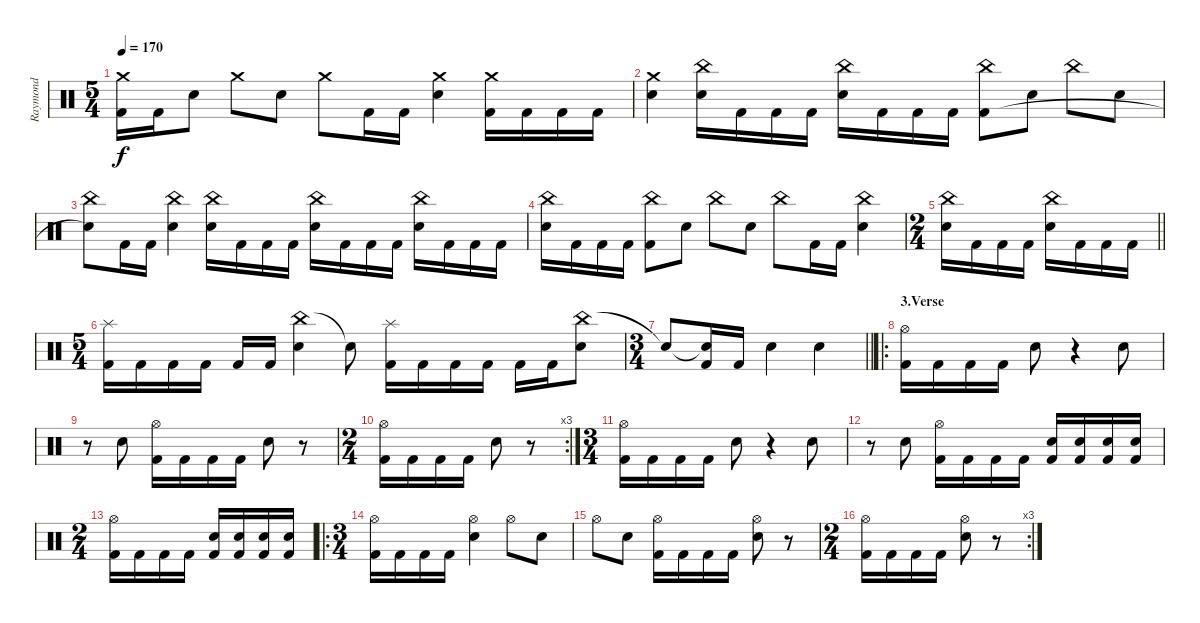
\track ("Raymond" "Raymond") {instrument percussion}
\staff {score}
\articulation defaults
\ts (5 4)
\tempo 170
\clef neutral
\ks c
("Crash medium (hit)" "Kick (hit) 2").16{dy f} "Kick (hit) 2".16 "Electric Snare (hit)".8 "Crash medium (hit)".8 "Electric Snare (hit)".8 "Crash medium (hit)".8 "Kick (hit) 2".16 "Kick (hit) 2".16 ("Crash medium (hit)" "Electric Snare (hit)").4 ("Crash medium (hit)" "Kick (hit) 2").16 "Kick (hit) 2".16 "Kick (hit) 2".16 "Kick (hit) 2".16 |
("Crash medium (hit)" "Electric Snare (hit)").4 ("China (hit)" "Electric Snare (hit)").16 "Kick (hit) 2".16 "Kick (hit) 2".16 "Kick (hit) 2".16 ("China (hit)" "Electric Snare (hit)").16 "Kick (hit) 2".16 "Kick (hit) 2".16 "Kick (hit) 2".16 ("China (hit)" "Kick (hit) 2").8 "Electric Snare (hit)".8 "China (hit)".8 "Electric Snare (hit)".8 |
("China (hit)" "Snare (hit)"{t}).8 "Kick (hit) 2".16 "Kick (hit) 2".16 ("China (hit)" "Electric Snare (hit)").4 ("China (hit)" "Electric Snare (hit)").16 "Kick (hit) 2".16 "Kick (hit) 2".16 "Kick (hit) 2".16 ("China (hit)" "Electric Snare (hit)").16 "Kick (hit) 2".16 "Kick (hit) 2".16 "Kick (hit) 2".16 ("China (hit)" "Electric Snare (hit)").16 "Kick (hit) 2".16 "Kick (hit) 2".16 "Kick (hit) 2".16 |
("China (hit)" "Electric Snare (hit)").16 "Kick (hit) 2".16 "Kick (hit) 2".16 "Kick (hit) 2".16 ("China (hit)" "Kick (hit) 2").8 "Electric Snare (hit)".8 "China (hit)".8 "Electric Snare (hit)".8 "China (hit)".8 "Kick (hit) 2".16 "Kick (hit) 2".16 ("China (hit)" "Electric Snare (hit)").4 |
\ts (2 4)
\barLineRight lightlight
("China (hit)" "Electric Snare (hit)").16 "Kick (hit) 2".16 "Kick (hit) 2".16 "Kick (hit) 2".16 ("China (hit)" "Electric Snare (hit)").16 "Kick (hit) 2".16 "Kick (hit) 2".16 "Kick (hit) 2".16 |
\ts (5 4)
\section ("" "")
("Splash (hit)" "Kick (hit) 2").16 "Kick (hit) 2".16 "Kick (hit) 2".16 "Kick (hit) 2".16 "Kick (hit) 2".16 "Kick (hit) 2".16 ("China (hit)" "Electric Snare (hit)").4 "Snare (hit)"{t}.8 ("Splash (hit)" "Kick (hit) 2").16 "Kick (hit) 2".16 "Kick (hit) 2".16 "Kick (hit) 2".16 "Kick (hit) 2".16 "Kick (hit) 2".16 ("China (hit)" "Electric Snare (hit)").8 |
\ts (3 4)
\barLineRight lightlight "Snare (hit)"{t}.8
("Snare (hit)"{t} "Kick (hit) 2").16 "Kick (hit) 2".16 "Electric Snare (hit)".4 "Electric Snare (hit)".4 |
\ro
\section ("" "3.Verse")
("Hi-Hat (open)" "Kick (hit) 2").16 "Kick (hit) 2".16 "Kick (hit) 2".16 "Kick (hit) 2".16 "Electric Snare (hit)".8 r.4 "Electric Snare (hit)".8 |
r.8 "Electric Snare (hit)".8 ("Hi-Hat (open)" "Kick (hit) 2").16 "Kick (hit) 2".16 "Kick (hit) 2".16 "Kick (hit) 2".16 "Electric Snare (hit)".8 r.8 |
\rc 3
\ts (2 4)
("Hi-Hat (open)" "Kick (hit) 2").16 "Kick (hit) 2".16 "Kick (hit) 2".16 "Kick (hit) 2".16 "Electric Snare (hit)".8 r.8 |
\ts (3 4)
("Hi-Hat (open)" "Kick (hit) 2").16 "Kick (hit) 2".16 "Kick (hit) 2".16 "Kick (hit) 2".16 "Electric Snare (hit)".8 r.4 "Electric Snare (hit)".8 |
r.8 "Electric Snare (hit)".8 ("Hi-Hat (open)" "Kick (hit) 2").16 "Kick (hit) 2".16 "Kick (hit) 2".16 "Kick (hit) 2".16 ("Electric Snare (hit)" "Kick (hit) 2").16 ("Electric Snare (hit)" "Kick (hit) 2").16 ("Electric Snare (hit)" "Kick (hit) 2").16 ("Electric Snare (hit)" "Kick (hit) 2").16 |
\ts (2 4)
("Hi-Hat (open)" "Kick (hit) 2").16 "Kick (hit) 2".16 "Kick (hit) 2".16 "Kick (hit) 2".16 ("Electric Snare (hit)" "Kick (hit) 2").16 ("Electric Snare (hit)" "Kick (hit) 2").16 ("Electric Snare (hit)" "Kick (hit) 2").16 ("Electric Snare (hit)" "Kick (hit) 2").16 |
\ro
\ts (3 4)
("Hi-Hat (open)" "Kick (hit) 2").16 "Kick (hit) 2".16 "Kick (hit) 2".16 "Kick (hit) 2".16 ("Hi-Hat (open)" "Electric Snare (hit)").4 "Hi-Hat (open)".8 "Electric Snare (hit)".8 |
"Hi-Hat (open)".8 "Electric Snare (hit)".8 ("Hi-Hat (open)" "Kick (hit) 2").16 "Kick (hit) 2".16 "Kick (hit) 2".16 "Kick (hit) 2".16 ("Hi-Hat (open)" "Electric Snare (hit)").8 r.8 |
\rc 3
\ts (2 4)
("Hi-Hat (open)" "Kick (hit) 2").16 "Kick (hit) 2".16 "Kick (hit) 2".16 "Kick (hit) 2".16 ("Hi-Hat (open)" "Electric Snare (hit)").8 r.8
